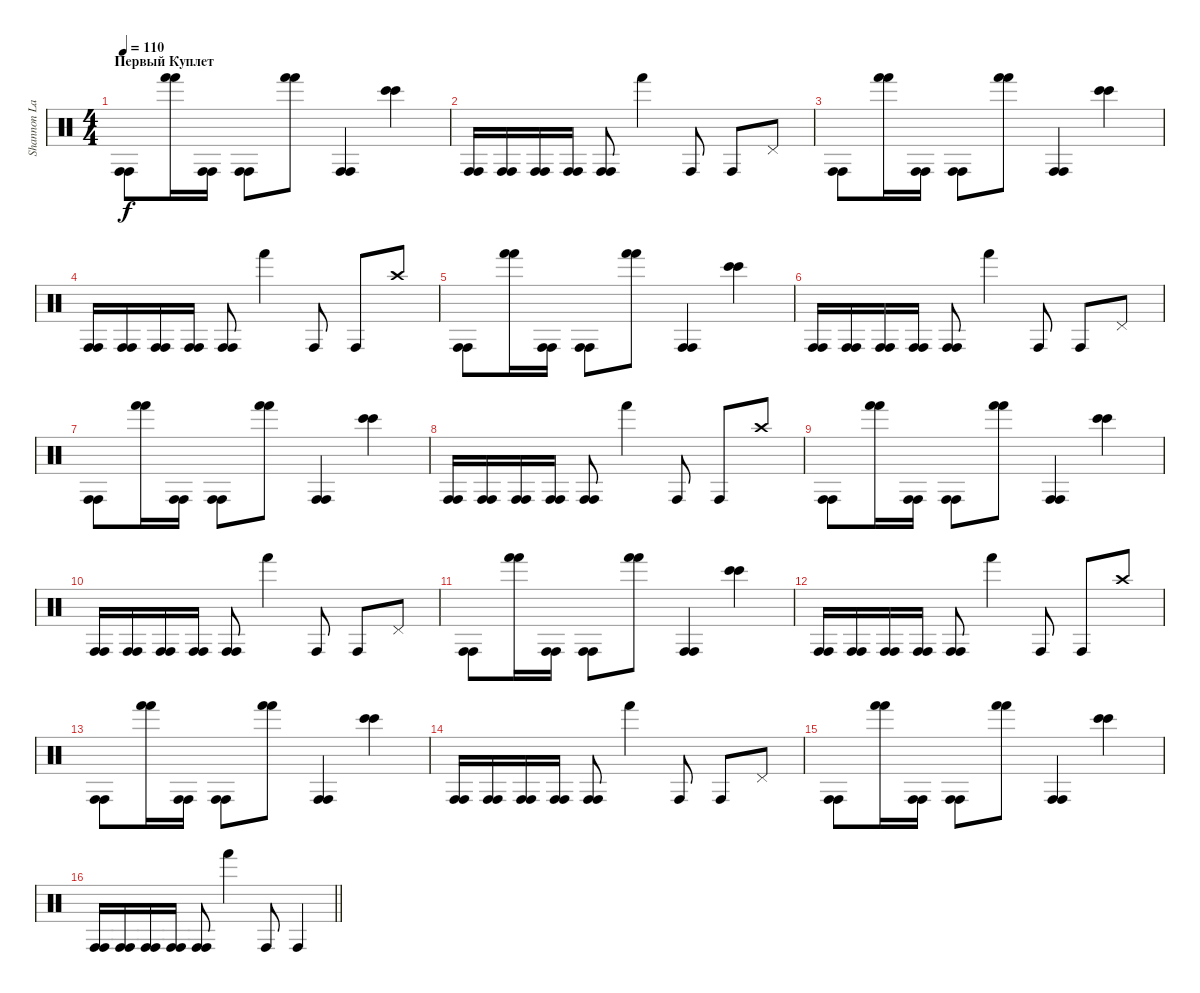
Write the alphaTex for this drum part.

\track ("Shannon Larkin [Percussion 1]" "Shannon La") {instrument percussion}
\staff {score}
\articulation defaults
\ts (4 4)
\section ("" "Первый Куплет")
\tempo 110
\clef neutral
\ks c
("Conga high (hit)" "Conga high (hit)").8{dy f} ("Hand (hit)" "Hand (hit)").16 ("Conga high (hit)" "Conga high (hit)").16 ("Conga high (hit)" "Conga high (hit)").8 ("Hand (hit)" "Hand (hit)").8 ("Conga high (hit)" "Conga high (hit)").4 ("Bongo High (hit)" "Bongo High (hit)").4 |
("Conga high (hit)" "Conga high (hit)").16 ("Conga high (hit)" "Conga high (hit)").16 ("Conga high (hit)" "Conga high (hit)").16 ("Conga high (hit)" "Conga high (hit)").16 ("Conga high (hit)" "Conga high (hit)").8 "Hand (hit)".4 "Conga high (hit)".8 "Conga high (hit)".8 "Pedal Hi-Hat (hit)".8 |
("Conga high (hit)" "Conga high (hit)").8 ("Hand (hit)" "Hand (hit)").16 ("Conga high (hit)" "Conga high (hit)").16 ("Conga high (hit)" "Conga high (hit)").8 ("Hand (hit)" "Hand (hit)").8 ("Conga high (hit)" "Conga high (hit)").4 ("Bongo High (hit)" "Bongo High (hit)").4 |
("Conga high (hit)" "Conga high (hit)").16 ("Conga high (hit)" "Conga high (hit)").16 ("Conga high (hit)" "Conga high (hit)").16 ("Conga high (hit)" "Conga high (hit)").16 ("Conga high (hit)" "Conga high (hit)").8 "Hand (hit)".4 "Conga high (hit)".8 "Conga high (hit)".8 "Crash high (hit)".8 |
("Conga high (hit)" "Conga high (hit)").8 ("Hand (hit)" "Hand (hit)").16 ("Conga high (hit)" "Conga high (hit)").16 ("Conga high (hit)" "Conga high (hit)").8 ("Hand (hit)" "Hand (hit)").8 ("Conga high (hit)" "Conga high (hit)").4 ("Bongo High (hit)" "Bongo High (hit)").4 |
("Conga high (hit)" "Conga high (hit)").16 ("Conga high (hit)" "Conga high (hit)").16 ("Conga high (hit)" "Conga high (hit)").16 ("Conga high (hit)" "Conga high (hit)").16 ("Conga high (hit)" "Conga high (hit)").8 "Hand (hit)".4 "Conga high (hit)".8 "Conga high (hit)".8 "Pedal Hi-Hat (hit)".8 |
("Conga high (hit)" "Conga high (hit)").8 ("Hand (hit)" "Hand (hit)").16 ("Conga high (hit)" "Conga high (hit)").16 ("Conga high (hit)" "Conga high (hit)").8 ("Hand (hit)" "Hand (hit)").8 ("Conga high (hit)" "Conga high (hit)").4 ("Bongo High (hit)" "Bongo High (hit)").4 |
("Conga high (hit)" "Conga high (hit)").16 ("Conga high (hit)" "Conga high (hit)").16 ("Conga high (hit)" "Conga high (hit)").16 ("Conga high (hit)" "Conga high (hit)").16 ("Conga high (hit)" "Conga high (hit)").8 "Hand (hit)".4 "Conga high (hit)".8 "Conga high (hit)".8 "Crash high (hit)".8 |
("Conga high (hit)" "Conga high (hit)").8 ("Hand (hit)" "Hand (hit)").16 ("Conga high (hit)" "Conga high (hit)").16 ("Conga high (hit)" "Conga high (hit)").8 ("Hand (hit)" "Hand (hit)").8 ("Conga high (hit)" "Conga high (hit)").4 ("Bongo High (hit)" "Bongo High (hit)").4 |
("Conga high (hit)" "Conga high (hit)").16 ("Conga high (hit)" "Conga high (hit)").16 ("Conga high (hit)" "Conga high (hit)").16 ("Conga high (hit)" "Conga high (hit)").16 ("Conga high (hit)" "Conga high (hit)").8 "Hand (hit)".4 "Conga high (hit)".8 "Conga high (hit)".8 "Pedal Hi-Hat (hit)".8 |
("Conga high (hit)" "Conga high (hit)").8 ("Hand (hit)" "Hand (hit)").16 ("Conga high (hit)" "Conga high (hit)").16 ("Conga high (hit)" "Conga high (hit)").8 ("Hand (hit)" "Hand (hit)").8 ("Conga high (hit)" "Conga high (hit)").4 ("Bongo High (hit)" "Bongo High (hit)").4 |
("Conga high (hit)" "Conga high (hit)").16 ("Conga high (hit)" "Conga high (hit)").16 ("Conga high (hit)" "Conga high (hit)").16 ("Conga high (hit)" "Conga high (hit)").16 ("Conga high (hit)" "Conga high (hit)").8 "Hand (hit)".4 "Conga high (hit)".8 "Conga high (hit)".8 "Crash high (hit)".8 |
("Conga high (hit)" "Conga high (hit)").8 ("Hand (hit)" "Hand (hit)").16 ("Conga high (hit)" "Conga high (hit)").16 ("Conga high (hit)" "Conga high (hit)").8 ("Hand (hit)" "Hand (hit)").8 ("Conga high (hit)" "Conga high (hit)").4 ("Bongo High (hit)" "Bongo High (hit)").4 |
("Conga high (hit)" "Conga high (hit)").16 ("Conga high (hit)" "Conga high (hit)").16 ("Conga high (hit)" "Conga high (hit)").16 ("Conga high (hit)" "Conga high (hit)").16 ("Conga high (hit)" "Conga high (hit)").8 "Hand (hit)".4 "Conga high (hit)".8 "Conga high (hit)".8 "Pedal Hi-Hat (hit)".8 |
("Conga high (hit)" "Conga high (hit)").8 ("Hand (hit)" "Hand (hit)").16 ("Conga high (hit)" "Conga high (hit)").16 ("Conga high (hit)" "Conga high (hit)").8 ("Hand (hit)" "Hand (hit)").8 ("Conga high (hit)" "Conga high (hit)").4 ("Bongo High (hit)" "Bongo High (hit)").4 |
\barLineRight lightlight
("Conga high (hit)" "Conga high (hit)").16 ("Conga high (hit)" "Conga high (hit)").16 ("Conga high (hit)" "Conga high (hit)").16 ("Conga high (hit)" "Conga high (hit)").16 ("Conga high (hit)" "Conga high (hit)").8 "Hand (hit)".4 "Conga high (hit)".8 "Conga high (hit)".4
